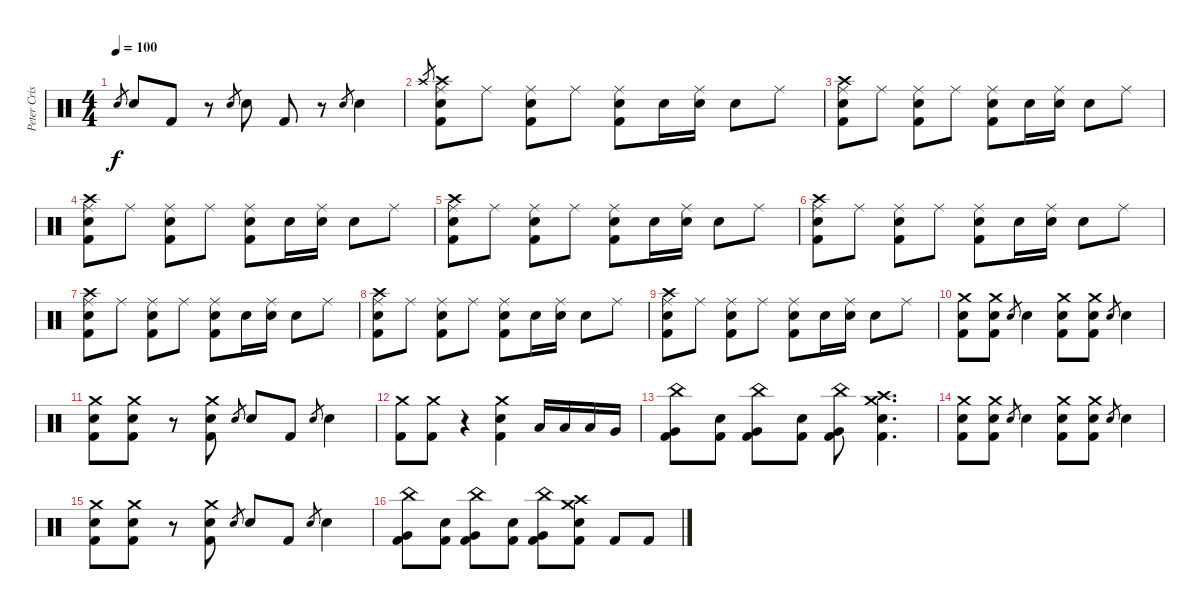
\track ("Peter Criss" "Peter Cris") {instrument percussion}
\staff {score}
\articulation defaults
\ts (4 4)
\tempo 100
\clef neutral
\ks c "Electric Snare (hit)".8{gr dy f} "Electric Snare (hit)".8 "Kick (hit) 2".8
r.8 "Electric Snare (hit)".8{gr} "Electric Snare (hit)".8 "Kick (hit) 2".8 r.8 "Electric Snare (hit)".8{gr} "Electric Snare (hit)".4 |
"Crash high (hit)".8{gr} ("Ride (middle)" "Crash high (hit)" "Snare (hit) 2" "Kick (hit) 2").8 "Ride (middle)".8 ("Ride (middle)" "Snare (hit) 2" "Kick (hit) 2").8 "Ride (middle)".8 ("Ride (middle)" "Snare (hit) 2" "Kick (hit) 2").8 "Snare (hit) 2".16 ("Ride (middle)" "Snare (hit) 2").16 "Snare (hit) 2".8 "Ride (middle)".8 |
("Ride (middle)" "Crash high (hit)" "Snare (hit) 2" "Kick (hit) 2").8 "Ride (middle)".8 ("Ride (middle)" "Snare (hit) 2" "Kick (hit) 2").8 "Ride (middle)".8 ("Ride (middle)" "Snare (hit) 2" "Kick (hit) 2").8 "Snare (hit) 2".16 ("Ride (middle)" "Snare (hit) 2").16 "Snare (hit) 2".8 "Ride (middle)".8 |
("Ride (middle)" "Crash high (hit)" "Snare (hit) 2" "Kick (hit) 2").8 "Ride (middle)".8 ("Ride (middle)" "Snare (hit) 2" "Kick (hit) 2").8 "Ride (middle)".8 ("Ride (middle)" "Snare (hit) 2" "Kick (hit) 2").8 "Snare (hit) 2".16 ("Ride (middle)" "Snare (hit) 2").16 "Snare (hit) 2".8 "Ride (middle)".8 |
("Ride (middle)" "Crash high (hit)" "Snare (hit) 2" "Kick (hit) 2").8 "Ride (middle)".8 ("Ride (middle)" "Snare (hit) 2" "Kick (hit) 2").8 "Ride (middle)".8 ("Ride (middle)" "Snare (hit) 2" "Kick (hit) 2").8 "Snare (hit) 2".16 ("Ride (middle)" "Snare (hit) 2").16 "Snare (hit) 2".8 "Ride (middle)".8 |
("Ride (middle)" "Crash high (hit)" "Snare (hit) 2" "Kick (hit) 2").8 "Ride (middle)".8 ("Ride (middle)" "Snare (hit) 2" "Kick (hit) 2").8 "Ride (middle)".8 ("Ride (middle)" "Snare (hit) 2" "Kick (hit) 2").8 "Snare (hit) 2".16 ("Ride (middle)" "Snare (hit) 2").16 "Snare (hit) 2".8 "Ride (middle)".8 |
("Ride (middle)" "Crash high (hit)" "Snare (hit) 2" "Kick (hit) 2").8 "Ride (middle)".8 ("Ride (middle)" "Snare (hit) 2" "Kick (hit) 2").8 "Ride (middle)".8 ("Ride (middle)" "Snare (hit) 2" "Kick (hit) 2").8 "Snare (hit) 2".16 ("Ride (middle)" "Snare (hit) 2").16 "Snare (hit) 2".8 "Ride (middle)".8 |
("Ride (middle)" "Crash high (hit)" "Snare (hit) 2" "Kick (hit) 2").8 "Ride (middle)".8 ("Ride (middle)" "Snare (hit) 2" "Kick (hit) 2").8 "Ride (middle)".8 ("Ride (middle)" "Snare (hit) 2" "Kick (hit) 2").8 "Snare (hit) 2".16 ("Ride (middle)" "Snare (hit) 2").16 "Snare (hit) 2".8 "Ride (middle)".8 |
("Ride (middle)" "Crash high (hit)" "Snare (hit) 2" "Kick (hit) 2").8 "Ride (middle)".8 ("Ride (middle)" "Snare (hit) 2" "Kick (hit) 2").8 "Ride (middle)".8 ("Ride (middle)" "Snare (hit) 2" "Kick (hit) 2").8 "Snare (hit) 2".16 ("Ride (middle)" "Snare (hit) 2").16 "Snare (hit) 2".8 "Ride (middle)".8 |
("Crash medium (hit)" "Snare (hit) 2" "Kick (hit) 2").8 ("Crash medium (hit)" "Snare (hit) 2" "Kick (hit) 2").8 "Electric Snare (hit)".8{gr} "Electric Snare (hit)".4 ("Crash medium (hit)" "Snare (hit) 2" "Kick (hit) 2").8 ("Crash medium (hit)" "Snare (hit) 2" "Kick (hit) 2").8 "Electric Snare (hit)".8{gr} "Electric Snare (hit)".4 |
("Crash medium (hit)" "Snare (hit) 2" "Kick (hit) 2").8 ("Crash medium (hit)" "Snare (hit) 2" "Kick (hit) 2").8 r.8 ("Crash medium (hit)" "Snare (hit) 2" "Kick (hit) 2").8 "Electric Snare (hit)".8{gr} "Electric Snare (hit)".8 "Kick (hit) 2".8 "Electric Snare (hit)".8{gr} "Electric Snare (hit)".4 |
("Kick (hit) 2" "Crash medium (hit)").8 ("Kick (hit) 2" "Crash medium (hit)").8 r.4 ("Crash medium (hit)" "Snare (hit) 2" "Kick (hit) 2").4 "Low Tom (hit)".16 "Low Tom (hit)".16 "Low Tom (hit)".16 "Very Low Tom (hit)".16 |
("Very Low Tom (hit)" "China (hit)" "Kick (hit) 2").8 ("Kick (hit) 2" "Snare (hit) 2").8 ("Very Low Tom (hit)" "China (hit)" "Kick (hit) 2").8 ("Kick (hit) 2" "Snare (hit) 2").8 ("Very Low Tom (hit)" "China (hit)" "Kick (hit) 2").8 ("Crash medium (hit)" "Crash high (hit)" "Kick (hit) 2" "Snare (hit) 2").4{d} |
("Crash medium (hit)" "Snare (hit) 2" "Kick (hit) 2").8 ("Crash medium (hit)" "Snare (hit) 2" "Kick (hit) 2").8 "Electric Snare (hit)".8{gr} "Electric Snare (hit)".4 ("Crash medium (hit)" "Snare (hit) 2" "Kick (hit) 2").8 ("Crash medium (hit)" "Snare (hit) 2" "Kick (hit) 2").8 "Electric Snare (hit)".8{gr} "Electric Snare (hit)".4 |
("Crash medium (hit)" "Snare (hit) 2" "Kick (hit) 2").8 ("Crash medium (hit)" "Snare (hit) 2" "Kick (hit) 2").8 r.8 ("Crash medium (hit)" "Snare (hit) 2" "Kick (hit) 2").8 "Electric Snare (hit)".8{gr} "Electric Snare (hit)".8 "Kick (hit) 2".8 "Electric Snare (hit)".8{gr} "Electric Snare (hit)".4 |
("Very Low Tom (hit)" "China (hit)" "Kick (hit) 2").8 ("Kick (hit) 2" "Snare (hit) 2").8 ("Very Low Tom (hit)" "China (hit)" "Kick (hit) 2").8 ("Kick (hit) 2" "Snare (hit) 2").8 ("Very Low Tom (hit)" "China (hit)" "Kick (hit) 2").8 ("Crash medium (hit)" "Crash high (hit)" "Kick (hit) 2" "Snare (hit) 2").8 "Kick (hit) 2".8 "Kick (hit) 2".8
